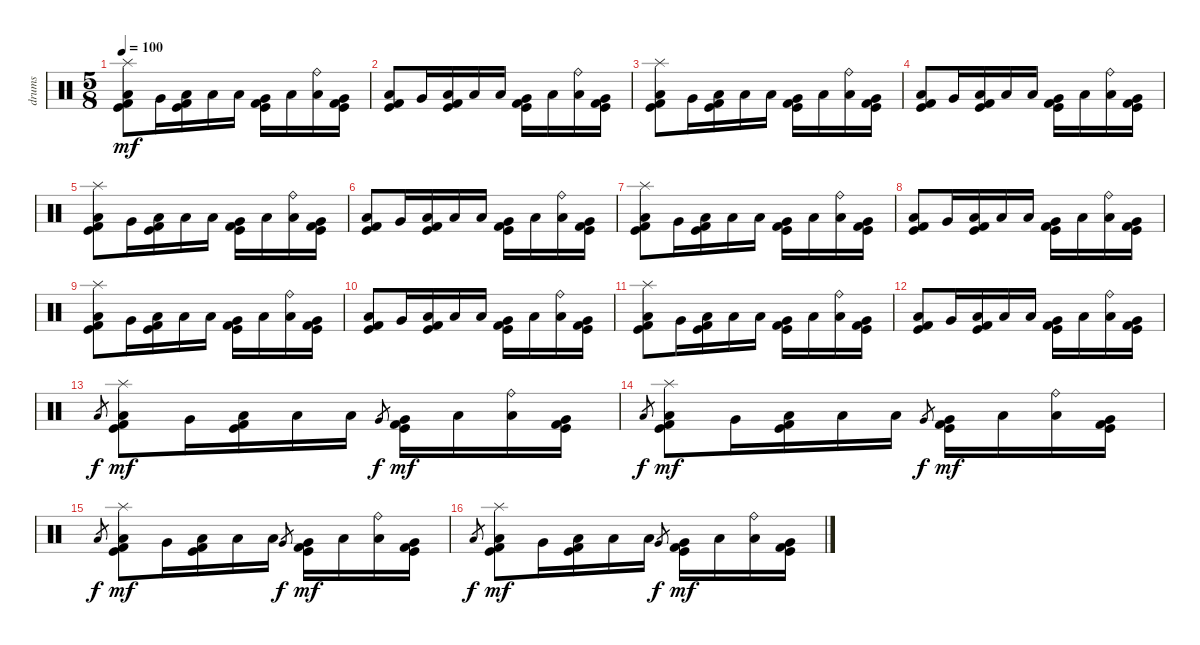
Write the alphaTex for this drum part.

\track ("drums" "drums") {instrument percussion}
\staff {score}
\articulation defaults
\ts (5 8)
\tempo 100
\clef neutral
\ks c
("Splash (hit)" "Low Floor Tom (hit)" "Kick (hit) 2" "Kick (hit)").8{dy mf} "Very Low Tom (hit)".16 ("Low Tom (hit)" "Kick (hit) 2" "Kick (hit)").16 "Low Floor Tom (hit)".16 "Low Floor Tom (hit)".16 ("Very Low Tom (hit)" "Kick (hit) 2" "Kick (hit)").16 "Low Tom (hit)".16 ("Ride (bell)" "Low Tom (hit)").16 ("Very Low Tom (hit)" "Kick (hit) 2" "Kick (hit)").16 |
("Low Floor Tom (hit)" "Kick (hit) 2" "Kick (hit)").8 "Very Low Tom (hit)".16 ("Low Tom (hit)" "Kick (hit) 2" "Kick (hit)").16 "Low Floor Tom (hit)".16 "Low Floor Tom (hit)".16 ("Very Low Tom (hit)" "Kick (hit) 2" "Kick (hit)").16 "Low Tom (hit)".16 ("Ride (bell)" "Low Tom (hit)").16 ("Very Low Tom (hit)" "Kick (hit) 2" "Kick (hit)").16 |
("Splash (hit)" "Low Floor Tom (hit)" "Kick (hit) 2" "Kick (hit)").8 "Very Low Tom (hit)".16 ("Low Tom (hit)" "Kick (hit) 2" "Kick (hit)").16 "Low Floor Tom (hit)".16 "Low Floor Tom (hit)".16 ("Very Low Tom (hit)" "Kick (hit) 2" "Kick (hit)").16 "Low Tom (hit)".16 ("Ride (bell)" "Low Tom (hit)").16 ("Very Low Tom (hit)" "Kick (hit) 2" "Kick (hit)").16 |
("Low Floor Tom (hit)" "Kick (hit) 2" "Kick (hit)").8 "Very Low Tom (hit)".16 ("Low Tom (hit)" "Kick (hit) 2" "Kick (hit)").16 "Low Floor Tom (hit)".16 "Low Floor Tom (hit)".16 ("Very Low Tom (hit)" "Kick (hit) 2" "Kick (hit)").16 "Low Tom (hit)".16 ("Ride (bell)" "Low Tom (hit)").16 ("Very Low Tom (hit)" "Kick (hit) 2" "Kick (hit)").16 |
("Splash (hit)" "Low Floor Tom (hit)" "Kick (hit) 2" "Kick (hit)").8 "Very Low Tom (hit)".16 ("Low Tom (hit)" "Kick (hit) 2" "Kick (hit)").16 "Low Floor Tom (hit)".16 "Low Floor Tom (hit)".16 ("Very Low Tom (hit)" "Kick (hit) 2" "Kick (hit)").16 "Low Tom (hit)".16 ("Ride (bell)" "Low Tom (hit)").16 ("Very Low Tom (hit)" "Kick (hit) 2" "Kick (hit)").16 |
("Low Floor Tom (hit)" "Kick (hit) 2" "Kick (hit)").8 "Very Low Tom (hit)".16 ("Low Tom (hit)" "Kick (hit) 2" "Kick (hit)").16 "Low Floor Tom (hit)".16 "Low Floor Tom (hit)".16 ("Very Low Tom (hit)" "Kick (hit) 2" "Kick (hit)").16 "Low Tom (hit)".16 ("Ride (bell)" "Low Tom (hit)").16 ("Very Low Tom (hit)" "Kick (hit) 2" "Kick (hit)").16 |
("Splash (hit)" "Low Floor Tom (hit)" "Kick (hit) 2" "Kick (hit)").8 "Very Low Tom (hit)".16 ("Low Tom (hit)" "Kick (hit) 2" "Kick (hit)").16 "Low Floor Tom (hit)".16 "Low Floor Tom (hit)".16 ("Very Low Tom (hit)" "Kick (hit) 2" "Kick (hit)").16 "Low Tom (hit)".16 ("Ride (bell)" "Low Tom (hit)").16 ("Very Low Tom (hit)" "Kick (hit) 2" "Kick (hit)").16 |
("Low Floor Tom (hit)" "Kick (hit) 2" "Kick (hit)").8 "Very Low Tom (hit)".16 ("Low Tom (hit)" "Kick (hit) 2" "Kick (hit)").16 "Low Floor Tom (hit)".16 "Low Floor Tom (hit)".16 ("Very Low Tom (hit)" "Kick (hit) 2" "Kick (hit)").16 "Low Tom (hit)".16 ("Ride (bell)" "Low Tom (hit)").16 ("Very Low Tom (hit)" "Kick (hit) 2" "Kick (hit)").16 |
("Splash (hit)" "Low Floor Tom (hit)" "Kick (hit) 2" "Kick (hit)").8 "Very Low Tom (hit)".16 ("Low Tom (hit)" "Kick (hit) 2" "Kick (hit)").16 "Low Floor Tom (hit)".16 "Low Floor Tom (hit)".16 ("Very Low Tom (hit)" "Kick (hit) 2" "Kick (hit)").16 "Low Tom (hit)".16 ("Ride (bell)" "Low Tom (hit)").16 ("Very Low Tom (hit)" "Kick (hit) 2" "Kick (hit)").16 |
("Low Floor Tom (hit)" "Kick (hit) 2" "Kick (hit)").8 "Very Low Tom (hit)".16 ("Low Tom (hit)" "Kick (hit) 2" "Kick (hit)").16 "Low Floor Tom (hit)".16 "Low Floor Tom (hit)".16 ("Very Low Tom (hit)" "Kick (hit) 2" "Kick (hit)").16 "Low Tom (hit)".16 ("Ride (bell)" "Low Tom (hit)").16 ("Very Low Tom (hit)" "Kick (hit) 2" "Kick (hit)").16 |
("Splash (hit)" "Low Floor Tom (hit)" "Kick (hit) 2" "Kick (hit)").8 "Very Low Tom (hit)".16 ("Low Tom (hit)" "Kick (hit) 2" "Kick (hit)").16 "Low Floor Tom (hit)".16 "Low Floor Tom (hit)".16 ("Very Low Tom (hit)" "Kick (hit) 2" "Kick (hit)").16 "Low Tom (hit)".16 ("Ride (bell)" "Low Tom (hit)").16 ("Very Low Tom (hit)" "Kick (hit) 2" "Kick (hit)").16 |
("Low Floor Tom (hit)" "Kick (hit) 2" "Kick (hit)").8 "Very Low Tom (hit)".16 ("Low Tom (hit)" "Kick (hit) 2" "Kick (hit)").16 "Low Floor Tom (hit)".16 "Low Floor Tom (hit)".16 ("Very Low Tom (hit)" "Kick (hit) 2" "Kick (hit)").16 "Low Tom (hit)".16 ("Ride (bell)" "Low Tom (hit)").16 ("Very Low Tom (hit)" "Kick (hit) 2" "Kick (hit)").16 |
"Low Floor Tom (hit)".8{gr dy f} ("Splash (hit)" "Low Floor Tom (hit)" "Kick (hit) 2" "Kick (hit)").8{dy mf} "Very Low Tom (hit)".16 ("Low Tom (hit)" "Kick (hit) 2" "Kick (hit)").16 "Low Floor Tom (hit)".16 "Low Floor Tom (hit)".16 "Very Low Tom (hit)".8{gr dy f} ("Very Low Tom (hit)" "Kick (hit) 2" "Kick (hit)").16{dy mf} "Low Tom (hit)".16 ("Ride (bell)" "Low Tom (hit)").16 ("Very Low Tom (hit)" "Kick (hit) 2" "Kick (hit)").16 |
"Low Floor Tom (hit)".8{gr dy f} ("Splash (hit)" "Low Floor Tom (hit)" "Kick (hit) 2" "Kick (hit)").8{dy mf} "Very Low Tom (hit)".16 ("Low Tom (hit)" "Kick (hit) 2" "Kick (hit)").16 "Low Floor Tom (hit)".16 "Low Floor Tom (hit)".16 "Very Low Tom (hit)".8{gr dy f} ("Very Low Tom (hit)" "Kick (hit) 2" "Kick (hit)").16{dy mf} "Low Tom (hit)".16 ("Ride (bell)" "Low Tom (hit)").16 ("Very Low Tom (hit)" "Kick (hit) 2" "Kick (hit)").16 |
"Low Floor Tom (hit)".8{gr dy f} ("Splash (hit)" "Low Floor Tom (hit)" "Kick (hit) 2" "Kick (hit)").8{dy mf} "Very Low Tom (hit)".16 ("Low Tom (hit)" "Kick (hit) 2" "Kick (hit)").16 "Low Floor Tom (hit)".16 "Low Floor Tom (hit)".16 "Very Low Tom (hit)".8{gr dy f} ("Very Low Tom (hit)" "Kick (hit) 2" "Kick (hit)").16{dy mf} "Low Tom (hit)".16 ("Ride (bell)" "Low Tom (hit)").16 ("Very Low Tom (hit)" "Kick (hit) 2" "Kick (hit)").16 |
"Low Floor Tom (hit)".8{gr dy f} ("Splash (hit)" "Low Floor Tom (hit)" "Kick (hit) 2" "Kick (hit)").8{dy mf} "Very Low Tom (hit)".16 ("Low Tom (hit)" "Kick (hit) 2" "Kick (hit)").16 "Low Floor Tom (hit)".16 "Low Floor Tom (hit)".16 "Very Low Tom (hit)".8{gr dy f} ("Very Low Tom (hit)" "Kick (hit) 2" "Kick (hit)").16{dy mf} "Low Tom (hit)".16 ("Ride (bell)" "Low Tom (hit)").16 ("Very Low Tom (hit)" "Kick (hit) 2" "Kick (hit)").16
